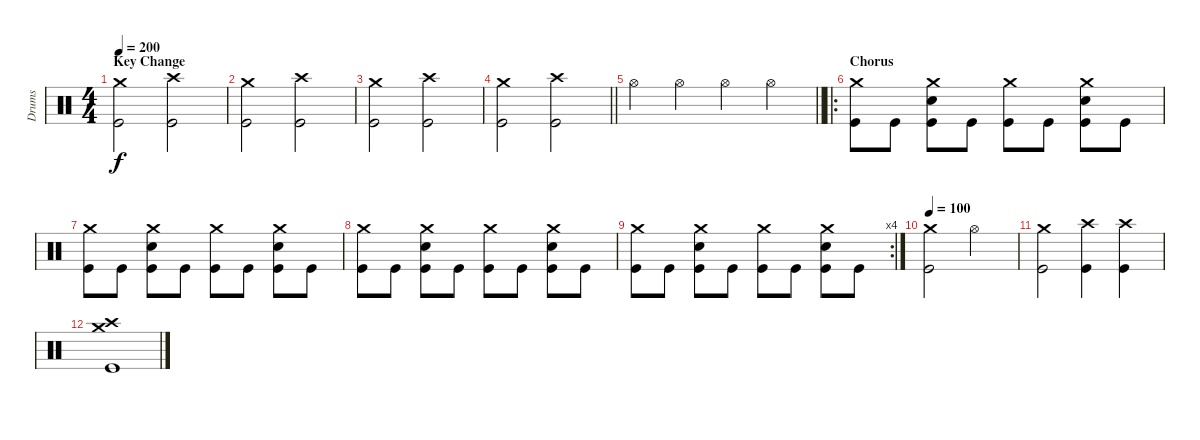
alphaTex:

\track ("Drums" "Drums") {instrument percussion}
\staff {score}
\articulation defaults
\ts (4 4)
\section ("" "Key Change")
\tempo 200
\clef neutral
\ks c
("Crash medium (hit)" "Kick (hit)").2{dy f} ("Crash high (hit)" "Kick (hit)").2 |
("Crash medium (hit)" "Kick (hit)").2 ("Crash high (hit)" "Kick (hit)").2 |
("Crash medium (hit)" "Kick (hit)").2 ("Crash high (hit)" "Kick (hit)").2 |
\barLineRight lightlight
("Crash medium (hit)" "Kick (hit)").2 ("Crash high (hit)" "Kick (hit)").2 |
\barLineRight lightlight "Hi-Hat (open)".4 "Hi-Hat (open)".4 "Hi-Hat (open)".4 "Hi-Hat (open)".4
|
\ro
\section ("" "Chorus")
("Crash medium (hit)" "Kick (hit)").8 "Kick (hit)".8 ("Crash medium (hit)" "Snare (hit) 2" "Kick (hit)").8 "Kick (hit)".8 ("Crash medium (hit)" "Kick (hit)").8 "Kick (hit)".8 ("Crash medium (hit)" "Snare (hit) 2" "Kick (hit)").8 "Kick (hit)".8 |
("Crash medium (hit)" "Kick (hit)").8 "Kick (hit)".8 ("Crash medium (hit)" "Snare (hit) 2" "Kick (hit)").8 "Kick (hit)".8 ("Crash medium (hit)" "Kick (hit)").8 "Kick (hit)".8 ("Crash medium (hit)" "Snare (hit) 2" "Kick (hit)").8 "Kick (hit)".8 |
("Crash medium (hit)" "Kick (hit)").8 "Kick (hit)".8 ("Crash medium (hit)" "Snare (hit) 2" "Kick (hit)").8 "Kick (hit)".8 ("Crash medium (hit)" "Kick (hit)").8 "Kick (hit)".8 ("Crash medium (hit)" "Snare (hit) 2" "Kick (hit)").8 "Kick (hit)".8 |
\rc 4
("Crash medium (hit)" "Kick (hit)").8 "Kick (hit)".8 ("Crash medium (hit)" "Snare (hit) 2" "Kick (hit)").8 "Kick (hit)".8 ("Crash medium (hit)" "Kick (hit)").8 "Kick (hit)".8 ("Crash medium (hit)" "Snare (hit) 2" "Kick (hit)").8 "Kick (hit)".8 |
\tempo 100
("Crash medium (hit)" "Kick (hit)").2 "Hi-Hat (open)".2 |
("Crash medium (hit)" "Kick (hit)").2 ("Crash high (hit)" "Kick (hit)").4 ("Crash high (hit)" "Kick (hit)").4 |
("Crash medium (hit)" "Crash high (hit)" "Kick (hit)").1
